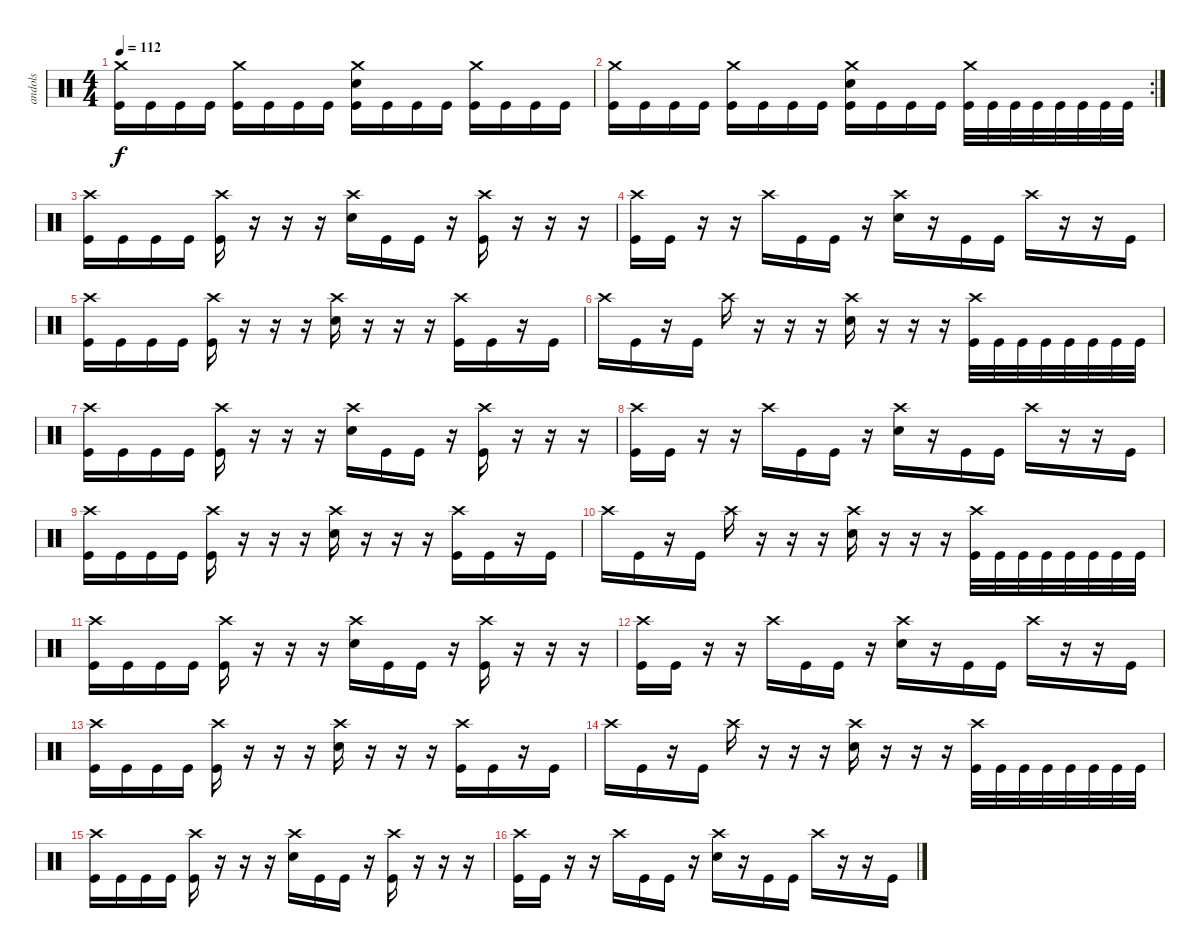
\track ("andols" "andols") {instrument percussion}
\staff {score}
\articulation defaults
\ts (4 4)
\tempo 112
\clef neutral
\ks c
("Crash medium (hit)" "Kick (hit)").16{dy f} "Kick (hit)".16 "Kick (hit)".16 "Kick (hit)".16 ("Crash medium (hit)" "Kick (hit)").16 "Kick (hit)".16 "Kick (hit)".16 "Kick (hit)".16 ("Crash medium (hit)" "Electric Snare (hit)" "Kick (hit)").16 "Kick (hit)".16 "Kick (hit)".16 "Kick (hit)".16 ("Crash medium (hit)" "Kick (hit)").16 "Kick (hit)".16 "Kick (hit)".16 "Kick (hit)".16 |
\rc 2
("Crash medium (hit)" "Kick (hit)").16 "Kick (hit)".16 "Kick (hit)".16 "Kick (hit)".16 ("Crash medium (hit)" "Kick (hit)").16 "Kick (hit)".16 "Kick (hit)".16 "Kick (hit)".16 ("Crash medium (hit)" "Electric Snare (hit)" "Kick (hit)").16 "Kick (hit)".16 "Kick (hit)".16 "Kick (hit)".16 ("Crash medium (hit)" "Kick (hit)").32 "Kick (hit)".32 "Kick (hit)".32 "Kick (hit)".32 "Kick (hit)".32 "Kick (hit)".32 "Kick (hit)".32 "Kick (hit)".32 |
("Crash high (hit)" "Kick (hit)").16 "Kick (hit)".16 "Kick (hit)".16 "Kick (hit)".16 ("Crash high (hit)" "Kick (hit)").16 r.16 r.16 r.16 ("Crash high (hit)" "Electric Snare (hit)").16 "Kick (hit)".16 "Kick (hit)".16 r.16 ("Crash high (hit)" "Kick (hit)").16 r.16 r.16 r.16 |
("Crash high (hit)" "Kick (hit)").16 "Kick (hit)".16 r.16 r.16 "Crash high (hit)".16 "Kick (hit)".16 "Kick (hit)".16 r.16 ("Crash high (hit)" "Electric Snare (hit)").16 r.16 "Kick (hit)".16 "Kick (hit)".16 "Crash high (hit)".16 r.16 r.16 "Kick (hit)".16 |
("Crash high (hit)" "Kick (hit)").16 "Kick (hit)".16 "Kick (hit)".16 "Kick (hit)".16 ("Crash high (hit)" "Kick (hit)").16 r.16 r.16 r.16 ("Crash high (hit)" "Electric Snare (hit)").16 r.16 r.16 r.16 ("Crash high (hit)" "Kick (hit)").16 "Kick (hit)".16 r.16 "Kick (hit)".16 |
"Crash high (hit)".16 "Kick (hit)".16 r.16 "Kick (hit)".16 "Crash high (hit)".16 r.16 r.16 r.16 ("Crash high (hit)" "Electric Snare (hit)").16 r.16 r.16 r.16 ("Crash high (hit)" "Kick (hit)").32 "Kick (hit)".32 "Kick (hit)".32 "Kick (hit)".32 "Kick (hit)".32 "Kick (hit)".32 "Kick (hit)".32 "Kick (hit)".32 |
("Crash high (hit)" "Kick (hit)").16 "Kick (hit)".16 "Kick (hit)".16 "Kick (hit)".16 ("Crash high (hit)" "Kick (hit)").16 r.16 r.16 r.16 ("Crash high (hit)" "Electric Snare (hit)").16 "Kick (hit)".16 "Kick (hit)".16 r.16 ("Crash high (hit)" "Kick (hit)").16 r.16 r.16 r.16 |
("Crash high (hit)" "Kick (hit)").16 "Kick (hit)".16 r.16 r.16 "Crash high (hit)".16 "Kick (hit)".16 "Kick (hit)".16 r.16 ("Crash high (hit)" "Electric Snare (hit)").16 r.16 "Kick (hit)".16 "Kick (hit)".16 "Crash high (hit)".16 r.16 r.16 "Kick (hit)".16 |
("Crash high (hit)" "Kick (hit)").16 "Kick (hit)".16 "Kick (hit)".16 "Kick (hit)".16 ("Crash high (hit)" "Kick (hit)").16 r.16 r.16 r.16 ("Crash high (hit)" "Electric Snare (hit)").16 r.16 r.16 r.16 ("Crash high (hit)" "Kick (hit)").16 "Kick (hit)".16 r.16 "Kick (hit)".16 |
"Crash high (hit)".16 "Kick (hit)".16 r.16 "Kick (hit)".16 "Crash high (hit)".16 r.16 r.16 r.16 ("Crash high (hit)" "Electric Snare (hit)").16 r.16 r.16 r.16 ("Crash high (hit)" "Kick (hit)").32 "Kick (hit)".32 "Kick (hit)".32 "Kick (hit)".32 "Kick (hit)".32 "Kick (hit)".32 "Kick (hit)".32 "Kick (hit)".32 |
("Crash high (hit)" "Kick (hit)").16 "Kick (hit)".16 "Kick (hit)".16 "Kick (hit)".16 ("Crash high (hit)" "Kick (hit)").16 r.16 r.16 r.16 ("Crash high (hit)" "Electric Snare (hit)").16 "Kick (hit)".16 "Kick (hit)".16 r.16 ("Crash high (hit)" "Kick (hit)").16 r.16 r.16 r.16 |
("Crash high (hit)" "Kick (hit)").16 "Kick (hit)".16 r.16 r.16 "Crash high (hit)".16 "Kick (hit)".16 "Kick (hit)".16 r.16 ("Crash high (hit)" "Electric Snare (hit)").16 r.16 "Kick (hit)".16 "Kick (hit)".16 "Crash high (hit)".16 r.16 r.16 "Kick (hit)".16 |
("Crash high (hit)" "Kick (hit)").16 "Kick (hit)".16 "Kick (hit)".16 "Kick (hit)".16 ("Crash high (hit)" "Kick (hit)").16 r.16 r.16 r.16 ("Crash high (hit)" "Electric Snare (hit)").16 r.16 r.16 r.16 ("Crash high (hit)" "Kick (hit)").16 "Kick (hit)".16 r.16 "Kick (hit)".16 |
"Crash high (hit)".16 "Kick (hit)".16 r.16 "Kick (hit)".16 "Crash high (hit)".16 r.16 r.16 r.16 ("Crash high (hit)" "Electric Snare (hit)").16 r.16 r.16 r.16 ("Crash high (hit)" "Kick (hit)").32 "Kick (hit)".32 "Kick (hit)".32 "Kick (hit)".32 "Kick (hit)".32 "Kick (hit)".32 "Kick (hit)".32 "Kick (hit)".32 |
("Crash high (hit)" "Kick (hit)").16 "Kick (hit)".16 "Kick (hit)".16 "Kick (hit)".16 ("Crash high (hit)" "Kick (hit)").16 r.16 r.16 r.16 ("Crash high (hit)" "Electric Snare (hit)").16 "Kick (hit)".16 "Kick (hit)".16 r.16 ("Crash high (hit)" "Kick (hit)").16 r.16 r.16 r.16 |
("Crash high (hit)" "Kick (hit)").16 "Kick (hit)".16 r.16 r.16 "Crash high (hit)".16 "Kick (hit)".16 "Kick (hit)".16 r.16 ("Crash high (hit)" "Electric Snare (hit)").16 r.16 "Kick (hit)".16 "Kick (hit)".16 "Crash high (hit)".16 r.16 r.16 "Kick (hit)".16
